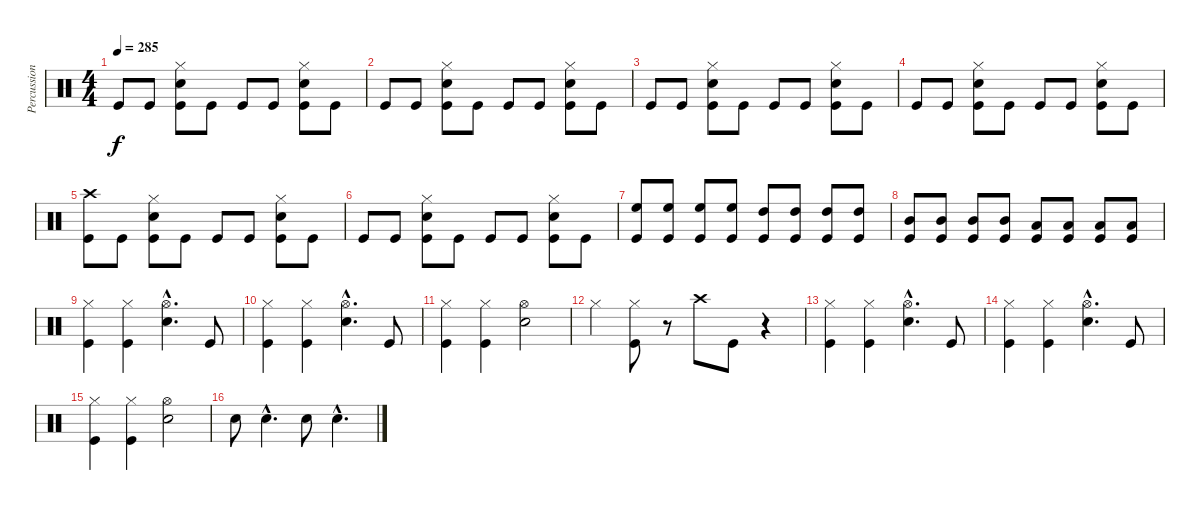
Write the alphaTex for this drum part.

\track ("Percussion" "Percussion") {instrument percussion}
\staff {score}
\articulation defaults
\ts (4 4)
\tempo 285
\clef neutral
\ks c "Kick (hit)".8{dy f} "Kick (hit)".8
("Snare (hit) 2" "Hi-Hat (closed)" "Kick (hit)").8 "Kick (hit)".8 "Kick (hit)".8 "Kick (hit)".8 ("Snare (hit) 2" "Hi-Hat (closed)" "Kick (hit)").8 "Kick (hit)".8 |
"Kick (hit)".8 "Kick (hit)".8 ("Snare (hit) 2" "Hi-Hat (closed)" "Kick (hit)").8 "Kick (hit)".8 "Kick (hit)".8 "Kick (hit)".8 ("Snare (hit) 2" "Hi-Hat (closed)" "Kick (hit)").8 "Kick (hit)".8 |
"Kick (hit)".8 "Kick (hit)".8 ("Snare (hit) 2" "Hi-Hat (closed)" "Kick (hit)").8 "Kick (hit)".8 "Kick (hit)".8 "Kick (hit)".8 ("Snare (hit) 2" "Hi-Hat (closed)" "Kick (hit)").8 "Kick (hit)".8 |
"Kick (hit)".8 "Kick (hit)".8 ("Snare (hit) 2" "Hi-Hat (closed)" "Kick (hit)").8 "Kick (hit)".8 "Kick (hit)".8 "Kick (hit)".8 ("Snare (hit) 2" "Hi-Hat (closed)" "Kick (hit)").8 "Kick (hit)".8 |
("Crash high (hit)" "Kick (hit)").8 "Kick (hit)".8 ("Snare (hit) 2" "Hi-Hat (closed)" "Kick (hit)").8 "Kick (hit)".8 "Kick (hit)".8 "Kick (hit)".8 ("Snare (hit) 2" "Hi-Hat (closed)" "Kick (hit)").8 "Kick (hit)".8 |
"Kick (hit)".8 "Kick (hit)".8 ("Snare (hit) 2" "Hi-Hat (closed)" "Kick (hit)").8 "Kick (hit)".8 "Kick (hit)".8 "Kick (hit)".8 ("Snare (hit) 2" "Hi-Hat (closed)" "Kick (hit)").8 "Kick (hit)".8 |
("High Floor Tom (hit)" "Kick (hit)").8 ("High Floor Tom (hit)" "Kick (hit)").8 ("High Floor Tom (hit)" "Kick (hit)").8 ("High Floor Tom (hit)" "Kick (hit)").8 ("High Tom (hit)" "Kick (hit)").8 ("High Tom (hit)" "Kick (hit)").8 ("High Tom (hit)" "Kick (hit)").8 ("High Tom (hit)" "Kick (hit)").8 |
("Mid Tom (hit)" "Kick (hit)").8 ("Mid Tom (hit)" "Kick (hit)").8 ("Mid Tom (hit)" "Kick (hit)").8 ("Mid Tom (hit)" "Kick (hit)").8 ("Low Tom (hit)" "Kick (hit)").8 ("Low Tom (hit)" "Kick (hit)").8 ("Low Tom (hit)" "Kick (hit)").8 ("Low Tom (hit)" "Kick (hit)").8 |
("Hi-Hat (closed)" "Kick (hit)").4 ("Hi-Hat (closed)" "Kick (hit)").4 ("Snare (hit) 2"{hac} "Hi-Hat (open)"{hac}).4{d} "Kick (hit)".8 |
("Hi-Hat (closed)" "Kick (hit)").4 ("Hi-Hat (closed)" "Kick (hit)").4 ("Snare (hit) 2"{hac} "Hi-Hat (open)"{hac}).4{d} "Kick (hit)".8 |
("Hi-Hat (closed)" "Kick (hit)").4 ("Hi-Hat (closed)" "Kick (hit)").4 ("Snare (hit) 2" "Hi-Hat (open)").2 |
"Hi-Hat (closed)".4 ("Hi-Hat (closed)" "Kick (hit)").8 r.8 "Crash high (hit)".8 "Kick (hit)".8 r.4 |
("Hi-Hat (closed)" "Kick (hit)").4 ("Hi-Hat (closed)" "Kick (hit)").4 ("Snare (hit) 2"{hac} "Hi-Hat (open)"{hac}).4{d} "Kick (hit)".8 |
("Hi-Hat (closed)" "Kick (hit)").4 ("Hi-Hat (closed)" "Kick (hit)").4 ("Snare (hit) 2"{hac} "Hi-Hat (open)"{hac}).4{d} "Kick (hit)".8 |
("Hi-Hat (closed)" "Kick (hit)").4 ("Hi-Hat (closed)" "Kick (hit)").4 ("Snare (hit) 2" "Hi-Hat (open)").2 |
"Snare (hit) 2".8 "Snare (hit) 2"{hac}.4{d} "Snare (hit) 2".8 "Snare (hit) 2"{hac}.4{d}
